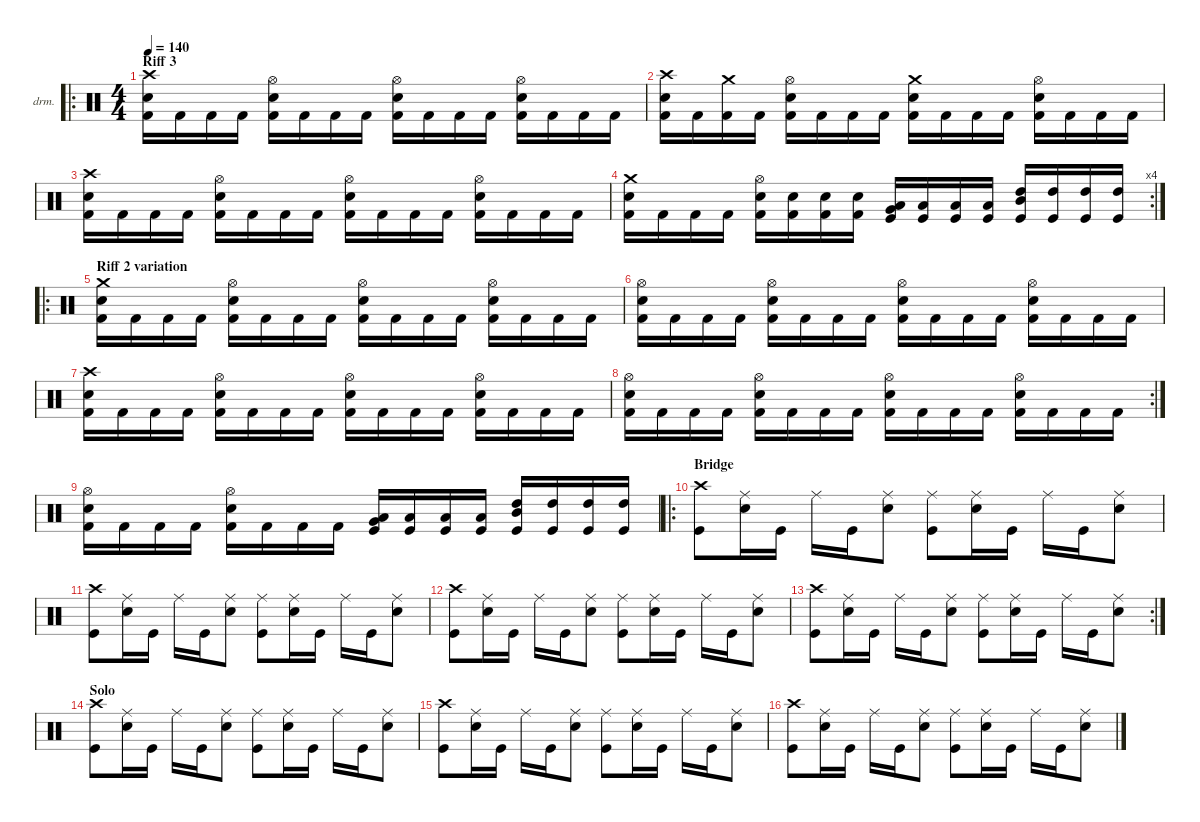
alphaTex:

\defaultSystemsLayout 4
\hideDynamics
\bracketExtendMode nobrackets
\firstSystemTrackNameOrientation horizontal
\otherSystemsTrackNameOrientation horizontal
\track ("Drumkit" "drm.") {instrument percussion}
\staff {score}
\articulation defaults
\ro
\ts (4 4)
\section ("" "Riff 3")
\tempo 140
\clef neutral
\ks c
("Crash high (hit)" "Snare (hit) 2" "Kick (hit) 2").16{dy f} "Kick (hit) 2".16 "Kick (hit) 2".16 "Kick (hit) 2".16 ("Hi-Hat (open)" "Snare (hit) 2" "Kick (hit) 2").16 "Kick (hit) 2".16 "Kick (hit) 2".16 "Kick (hit) 2".16 ("Hi-Hat (open)" "Snare (hit) 2" "Kick (hit) 2").16 "Kick (hit) 2".16 "Kick (hit) 2".16 "Kick (hit) 2".16 ("Hi-Hat (open)" "Snare (hit) 2" "Kick (hit) 2").16 "Kick (hit) 2".16 "Kick (hit) 2".16 "Kick (hit) 2".16 |
("Crash high (hit)" "Snare (hit) 2" "Kick (hit) 2").16 "Kick (hit) 2".16 ("Kick (hit) 2" "Crash medium (hit)").16 "Kick (hit) 2".16 ("Hi-Hat (open)" "Snare (hit) 2" "Kick (hit) 2").16 "Kick (hit) 2".16 "Kick (hit) 2".16 "Kick (hit) 2".16 ("Snare (hit) 2" "Kick (hit) 2" "Crash medium (hit)").16 "Kick (hit) 2".16 "Kick (hit) 2".16 "Kick (hit) 2".16 ("Hi-Hat (open)" "Snare (hit) 2" "Kick (hit) 2").16 "Kick (hit) 2".16 "Kick (hit) 2".16 "Kick (hit) 2".16 |
("Crash high (hit)" "Snare (hit) 2" "Kick (hit) 2").16 "Kick (hit) 2".16 "Kick (hit) 2".16 "Kick (hit) 2".16 ("Hi-Hat (open)" "Snare (hit) 2" "Kick (hit) 2").16 "Kick (hit) 2".16 "Kick (hit) 2".16 "Kick (hit) 2".16 ("Hi-Hat (open)" "Snare (hit) 2" "Kick (hit) 2").16 "Kick (hit) 2".16 "Kick (hit) 2".16 "Kick (hit) 2".16 ("Hi-Hat (open)" "Snare (hit) 2" "Kick (hit) 2").16 "Kick (hit) 2".16 "Kick (hit) 2".16 "Kick (hit) 2".16 |
\rc 4
("Snare (hit) 2" "Kick (hit) 2" "Crash medium (hit)").16 "Kick (hit) 2".16 "Kick (hit) 2".16 "Kick (hit) 2".16 ("Hi-Hat (open)" "Snare (hit) 2" "Kick (hit) 2").16 ("Kick (hit) 2" "Snare (hit) 2").16 ("Kick (hit) 2" "Snare (hit) 2").16 ("Kick (hit) 2" "Snare (hit) 2").16 ("Kick (hit)" "Very Low Tom (hit)" "Low Tom (hit)").16 ("Kick (hit)" "Low Tom (hit)").16 ("Kick (hit)" "Low Tom (hit)").16 ("Kick (hit)" "Low Tom (hit)").16 ("High Tom (hit)" "Mid Tom (hit)" "Kick (hit)").16 ("Kick (hit)" "High Tom (hit)").16 ("High Tom (hit)" "Kick (hit)").16 ("High Tom (hit)" "Kick (hit)").16 |
\ro
\section ("" "Riff 2 variation")
("Crash medium (hit)" "Snare (hit) 2" "Kick (hit) 2").16{dy mf} "Kick (hit) 2".16 "Kick (hit) 2".16 "Kick (hit) 2".16 ("Hi-Hat (open)" "Snare (hit) 2" "Kick (hit) 2").16 "Kick (hit) 2".16 "Kick (hit) 2".16 "Kick (hit) 2".16 ("Hi-Hat (open)" "Snare (hit) 2" "Kick (hit) 2").16 "Kick (hit) 2".16 "Kick (hit) 2".16 "Kick (hit) 2".16 ("Hi-Hat (open)" "Snare (hit) 2" "Kick (hit) 2").16 "Kick (hit) 2".16 "Kick (hit) 2".16 "Kick (hit) 2".16 |
("Hi-Hat (open)" "Snare (hit) 2" "Kick (hit) 2").16 "Kick (hit) 2".16 "Kick (hit) 2".16 "Kick (hit) 2".16 ("Hi-Hat (open)" "Snare (hit) 2" "Kick (hit) 2").16 "Kick (hit) 2".16 "Kick (hit) 2".16 "Kick (hit) 2".16 ("Hi-Hat (open)" "Snare (hit) 2" "Kick (hit) 2").16 "Kick (hit) 2".16 "Kick (hit) 2".16 "Kick (hit) 2".16 ("Hi-Hat (open)" "Snare (hit) 2" "Kick (hit) 2").16 "Kick (hit) 2".16 "Kick (hit) 2".16 "Kick (hit) 2".16 |
("Crash high (hit)" "Snare (hit) 2" "Kick (hit) 2").16 "Kick (hit) 2".16 "Kick (hit) 2".16 "Kick (hit) 2".16 ("Hi-Hat (open)" "Snare (hit) 2" "Kick (hit) 2").16 "Kick (hit) 2".16 "Kick (hit) 2".16 "Kick (hit) 2".16 ("Hi-Hat (open)" "Snare (hit) 2" "Kick (hit) 2").16 "Kick (hit) 2".16 "Kick (hit) 2".16 "Kick (hit) 2".16 ("Hi-Hat (open)" "Snare (hit) 2" "Kick (hit) 2").16 "Kick (hit) 2".16 "Kick (hit) 2".16 "Kick (hit) 2".16 |
\rc 2
("Hi-Hat (open)" "Snare (hit) 2" "Kick (hit) 2").16 "Kick (hit) 2".16 "Kick (hit) 2".16 "Kick (hit) 2".16 ("Hi-Hat (open)" "Snare (hit) 2" "Kick (hit) 2").16 "Kick (hit) 2".16 "Kick (hit) 2".16 "Kick (hit) 2".16 ("Hi-Hat (open)" "Snare (hit) 2" "Kick (hit) 2").16 "Kick (hit) 2".16 "Kick (hit) 2".16 "Kick (hit) 2".16 ("Hi-Hat (open)" "Snare (hit) 2" "Kick (hit) 2").16 "Kick (hit) 2".16 "Kick (hit) 2".16 "Kick (hit) 2".16 |
("Hi-Hat (open)" "Snare (hit) 2" "Kick (hit) 2").16 "Kick (hit) 2".16 "Kick (hit) 2".16 "Kick (hit) 2".16 ("Hi-Hat (open)" "Snare (hit) 2" "Kick (hit) 2").16 "Kick (hit) 2".16 "Kick (hit) 2".16 "Kick (hit) 2".16 ("Kick (hit)" "Very Low Tom (hit)" "Low Tom (hit)").16{dy f} ("Kick (hit)" "Low Tom (hit)").16 ("Kick (hit)" "Low Tom (hit)").16 ("Kick (hit)" "Low Tom (hit)").16 ("High Tom (hit)" "Mid Tom (hit)" "Kick (hit)").16 ("Kick (hit)" "High Tom (hit)").16 ("High Tom (hit)" "Kick (hit)").16 ("High Tom (hit)" "Kick (hit)").16 |
\ro
\section ("" "Bridge")
("Crash high (hit)" "Kick (hit)").8 ("Ride (middle)" "Snare (hit) 2").16 "Kick (hit)".16 "Ride (middle)".16 "Kick (hit)".16 ("Ride (middle)" "Snare (hit) 2").8 ("Ride (middle)" "Kick (hit)").8 ("Ride (middle)" "Snare (hit) 2").16 "Kick (hit)".16 "Ride (middle)".16 "Kick (hit)".16 ("Ride (middle)" "Snare (hit) 2").8 |
("Crash high (hit)" "Kick (hit)").8 ("Ride (middle)" "Snare (hit) 2").16 "Kick (hit)".16 "Ride (middle)".16 "Kick (hit)".16 ("Ride (middle)" "Snare (hit) 2").8 ("Ride (middle)" "Kick (hit)").8 ("Ride (middle)" "Snare (hit) 2").16 "Kick (hit)".16 "Ride (middle)".16 "Kick (hit)".16 ("Ride (middle)" "Snare (hit) 2").8 |
("Crash high (hit)" "Kick (hit)").8 ("Ride (middle)" "Snare (hit) 2").16 "Kick (hit)".16 "Ride (middle)".16 "Kick (hit)".16 ("Ride (middle)" "Snare (hit) 2").8 ("Ride (middle)" "Kick (hit)").8 ("Ride (middle)" "Snare (hit) 2").16 "Kick (hit)".16 "Ride (middle)".16 "Kick (hit)".16 ("Ride (middle)" "Snare (hit) 2").8 |
\rc 2
("Crash high (hit)" "Kick (hit)").8 ("Ride (middle)" "Snare (hit) 2").16 "Kick (hit)".16 "Ride (middle)".16 "Kick (hit)".16 ("Ride (middle)" "Snare (hit) 2").8 ("Ride (middle)" "Kick (hit)").8 ("Ride (middle)" "Snare (hit) 2").16 "Kick (hit)".16 "Ride (middle)".16 "Kick (hit)".16 ("Ride (middle)" "Snare (hit) 2").8 |
\section ("" "Solo")
("Crash high (hit)" "Kick (hit)").8 ("Ride (middle)" "Snare (hit) 2").16 "Kick (hit)".16 "Ride (middle)".16 "Kick (hit)".16 ("Ride (middle)" "Snare (hit) 2").8 ("Ride (middle)" "Kick (hit)").8 ("Ride (middle)" "Snare (hit) 2").16 "Kick (hit)".16 "Ride (middle)".16 "Kick (hit)".16 ("Ride (middle)" "Snare (hit) 2").8 |
("Crash high (hit)" "Kick (hit)").8 ("Ride (middle)" "Snare (hit) 2").16 "Kick (hit)".16 "Ride (middle)".16 "Kick (hit)".16 ("Ride (middle)" "Snare (hit) 2").8 ("Ride (middle)" "Kick (hit)").8 ("Ride (middle)" "Snare (hit) 2").16 "Kick (hit)".16 "Ride (middle)".16 "Kick (hit)".16 ("Ride (middle)" "Snare (hit) 2").8 |
("Crash high (hit)" "Kick (hit)").8 ("Ride (middle)" "Snare (hit) 2").16 "Kick (hit)".16 "Ride (middle)".16 "Kick (hit)".16 ("Ride (middle)" "Snare (hit) 2").8 ("Ride (middle)" "Kick (hit)").8 ("Ride (middle)" "Snare (hit) 2").16 "Kick (hit)".16 "Ride (middle)".16 "Kick (hit)".16 ("Ride (middle)" "Snare (hit) 2").8
